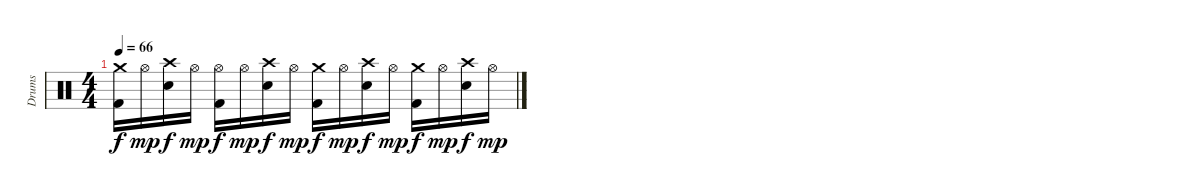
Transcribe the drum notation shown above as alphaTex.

\track ("Drums" "Drums") {instrument percussion}
\staff {score}
\articulation defaults
\ts (4 4)
\tempo 66
\clef neutral
\ks c
("Crash medium (hit)" "Kick (hit) 2").16{dy f} "Hi-Hat (open)".16{dy mp} ("Crash high (hit)" "Electric Snare (hit)").16{dy f} "Hi-Hat (open)".16{dy mp} ("Hi-Hat (open)" "Kick (hit) 2").16{dy f} "Hi-Hat (open)".16{dy mp} ("Crash high (hit)" "Electric Snare (hit)").16{dy f} "Hi-Hat (open)".16{dy mp} ("Crash medium (hit)" "Kick (hit) 2").16{dy f} "Hi-Hat (open)".16{dy mp} ("Crash high (hit)" "Electric Snare (hit)").16{dy f} "Hi-Hat (open)".16{dy mp} ("Crash medium (hit)" "Kick (hit) 2").16{dy f} "Hi-Hat (open)".16{dy mp} ("Crash high (hit)" "Electric Snare (hit)").16{dy f} "Hi-Hat (open)".16{dy mp}
